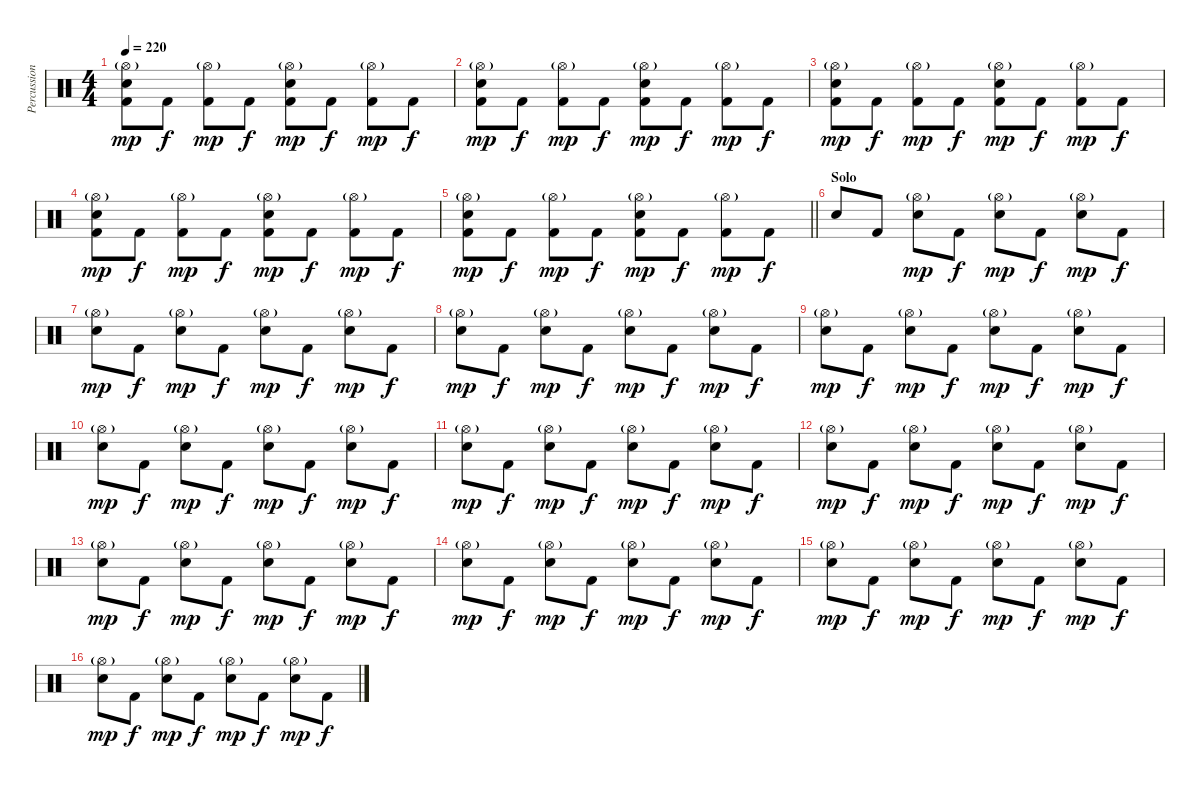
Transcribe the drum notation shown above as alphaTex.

\track ("Percussions" "Percussion") {instrument percussion}
\staff {score}
\articulation defaults
\ts (4 4)
\tempo 220
\clef neutral
\ks c
("Hi-Hat (open)"{g} "Electric Snare (hit)" "Kick (hit) 2").8{dy mp} "Kick (hit) 2".8{dy f} ("Hi-Hat (open)"{g} "Kick (hit) 2").8{dy mp} "Kick (hit) 2".8{dy f} ("Hi-Hat (open)"{g} "Electric Snare (hit)" "Kick (hit) 2").8{dy mp} "Kick (hit) 2".8{dy f} ("Hi-Hat (open)"{g} "Kick (hit) 2").8{dy mp} "Kick (hit) 2".8{dy f} |
("Hi-Hat (open)"{g} "Electric Snare (hit)" "Kick (hit) 2").8{dy mp} "Kick (hit) 2".8{dy f} ("Hi-Hat (open)"{g} "Kick (hit) 2").8{dy mp} "Kick (hit) 2".8{dy f} ("Hi-Hat (open)"{g} "Electric Snare (hit)" "Kick (hit) 2").8{dy mp} "Kick (hit) 2".8{dy f} ("Hi-Hat (open)"{g} "Kick (hit) 2").8{dy mp} "Kick (hit) 2".8{dy f} |
("Hi-Hat (open)"{g} "Electric Snare (hit)" "Kick (hit) 2").8{dy mp} "Kick (hit) 2".8{dy f} ("Hi-Hat (open)"{g} "Kick (hit) 2").8{dy mp} "Kick (hit) 2".8{dy f} ("Hi-Hat (open)"{g} "Electric Snare (hit)" "Kick (hit) 2").8{dy mp} "Kick (hit) 2".8{dy f} ("Hi-Hat (open)"{g} "Kick (hit) 2").8{dy mp} "Kick (hit) 2".8{dy f} |
("Hi-Hat (open)"{g} "Electric Snare (hit)" "Kick (hit) 2").8{dy mp} "Kick (hit) 2".8{dy f} ("Hi-Hat (open)"{g} "Kick (hit) 2").8{dy mp} "Kick (hit) 2".8{dy f} ("Hi-Hat (open)"{g} "Electric Snare (hit)" "Kick (hit) 2").8{dy mp} "Kick (hit) 2".8{dy f} ("Hi-Hat (open)"{g} "Kick (hit) 2").8{dy mp} "Kick (hit) 2".8{dy f} |
\barLineRight lightlight
("Hi-Hat (open)"{g} "Electric Snare (hit)" "Kick (hit) 2").8{dy mp} "Kick (hit) 2".8{dy f} ("Hi-Hat (open)"{g} "Kick (hit) 2").8{dy mp} "Kick (hit) 2".8{dy f} ("Hi-Hat (open)"{g} "Electric Snare (hit)" "Kick (hit) 2").8{dy mp} "Kick (hit) 2".8{dy f} ("Hi-Hat (open)"{g} "Kick (hit) 2").8{dy mp} "Kick (hit) 2".8{dy f} |
\section ("" "Solo")
"Electric Snare (hit)".8 "Kick (hit) 2".8 ("Hi-Hat (open)"{g} "Electric Snare (hit)").8{dy mp} "Kick (hit) 2".8{dy f} ("Hi-Hat (open)"{g} "Electric Snare (hit)").8{dy mp} "Kick (hit) 2".8{dy f} ("Hi-Hat (open)"{g} "Electric Snare (hit)").8{dy mp} "Kick (hit) 2".8{dy f} |
("Hi-Hat (open)"{g} "Electric Snare (hit)").8{dy mp} "Kick (hit) 2".8{dy f} ("Hi-Hat (open)"{g} "Electric Snare (hit)").8{dy mp} "Kick (hit) 2".8{dy f} ("Hi-Hat (open)"{g} "Electric Snare (hit)").8{dy mp} "Kick (hit) 2".8{dy f} ("Hi-Hat (open)"{g} "Electric Snare (hit)").8{dy mp} "Kick (hit) 2".8{dy f} |
("Hi-Hat (open)"{g} "Electric Snare (hit)").8{dy mp} "Kick (hit) 2".8{dy f} ("Hi-Hat (open)"{g} "Electric Snare (hit)").8{dy mp} "Kick (hit) 2".8{dy f} ("Hi-Hat (open)"{g} "Electric Snare (hit)").8{dy mp} "Kick (hit) 2".8{dy f} ("Hi-Hat (open)"{g} "Electric Snare (hit)").8{dy mp} "Kick (hit) 2".8{dy f} |
("Hi-Hat (open)"{g} "Electric Snare (hit)").8{dy mp} "Kick (hit) 2".8{dy f} ("Hi-Hat (open)"{g} "Electric Snare (hit)").8{dy mp} "Kick (hit) 2".8{dy f} ("Hi-Hat (open)"{g} "Electric Snare (hit)").8{dy mp} "Kick (hit) 2".8{dy f} ("Hi-Hat (open)"{g} "Electric Snare (hit)").8{dy mp} "Kick (hit) 2".8{dy f} |
("Hi-Hat (open)"{g} "Electric Snare (hit)").8{dy mp} "Kick (hit) 2".8{dy f} ("Hi-Hat (open)"{g} "Electric Snare (hit)").8{dy mp} "Kick (hit) 2".8{dy f} ("Hi-Hat (open)"{g} "Electric Snare (hit)").8{dy mp} "Kick (hit) 2".8{dy f} ("Hi-Hat (open)"{g} "Electric Snare (hit)").8{dy mp} "Kick (hit) 2".8{dy f} |
("Hi-Hat (open)"{g} "Electric Snare (hit)").8{dy mp} "Kick (hit) 2".8{dy f} ("Hi-Hat (open)"{g} "Electric Snare (hit)").8{dy mp} "Kick (hit) 2".8{dy f} ("Hi-Hat (open)"{g} "Electric Snare (hit)").8{dy mp} "Kick (hit) 2".8{dy f} ("Hi-Hat (open)"{g} "Electric Snare (hit)").8{dy mp} "Kick (hit) 2".8{dy f} |
("Hi-Hat (open)"{g} "Electric Snare (hit)").8{dy mp} "Kick (hit) 2".8{dy f} ("Hi-Hat (open)"{g} "Electric Snare (hit)").8{dy mp} "Kick (hit) 2".8{dy f} ("Hi-Hat (open)"{g} "Electric Snare (hit)").8{dy mp} "Kick (hit) 2".8{dy f} ("Hi-Hat (open)"{g} "Electric Snare (hit)").8{dy mp} "Kick (hit) 2".8{dy f} |
("Hi-Hat (open)"{g} "Electric Snare (hit)").8{dy mp} "Kick (hit) 2".8{dy f} ("Hi-Hat (open)"{g} "Electric Snare (hit)").8{dy mp} "Kick (hit) 2".8{dy f} ("Hi-Hat (open)"{g} "Electric Snare (hit)").8{dy mp} "Kick (hit) 2".8{dy f} ("Hi-Hat (open)"{g} "Electric Snare (hit)").8{dy mp} "Kick (hit) 2".8{dy f} |
("Hi-Hat (open)"{g} "Electric Snare (hit)").8{dy mp} "Kick (hit) 2".8{dy f} ("Hi-Hat (open)"{g} "Electric Snare (hit)").8{dy mp} "Kick (hit) 2".8{dy f} ("Hi-Hat (open)"{g} "Electric Snare (hit)").8{dy mp} "Kick (hit) 2".8{dy f} ("Hi-Hat (open)"{g} "Electric Snare (hit)").8{dy mp} "Kick (hit) 2".8{dy f} |
("Hi-Hat (open)"{g} "Electric Snare (hit)").8{dy mp} "Kick (hit) 2".8{dy f} ("Hi-Hat (open)"{g} "Electric Snare (hit)").8{dy mp} "Kick (hit) 2".8{dy f} ("Hi-Hat (open)"{g} "Electric Snare (hit)").8{dy mp} "Kick (hit) 2".8{dy f} ("Hi-Hat (open)"{g} "Electric Snare (hit)").8{dy mp} "Kick (hit) 2".8{dy f} |
("Hi-Hat (open)"{g} "Electric Snare (hit)").8{dy mp} "Kick (hit) 2".8{dy f} ("Hi-Hat (open)"{g} "Electric Snare (hit)").8{dy mp} "Kick (hit) 2".8{dy f} ("Hi-Hat (open)"{g} "Electric Snare (hit)").8{dy mp} "Kick (hit) 2".8{dy f} ("Hi-Hat (open)"{g} "Electric Snare (hit)").8{dy mp} "Kick (hit) 2".8{dy f}
